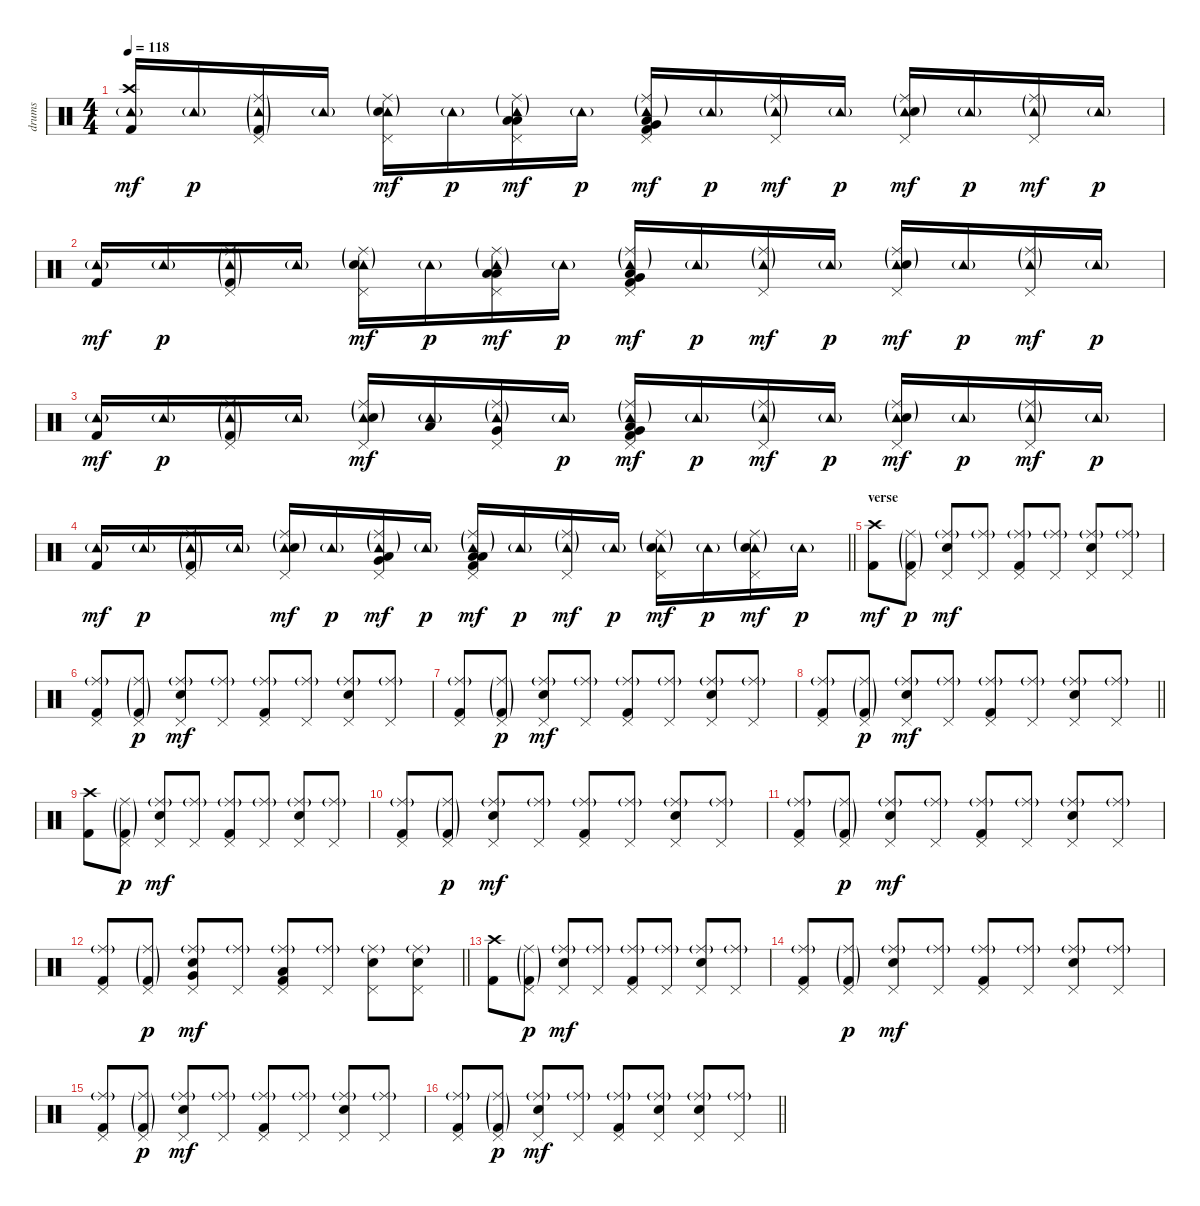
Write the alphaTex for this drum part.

\track ("drums" "drums") {instrument percussion}
\staff {score}
\articulation defaults
\ts (4 4)
\tempo 118
\clef neutral
\ks c
("Tambourine (hit)"{g} "Crash high (hit)" "Kick (hit) 2").16{dy mf} "Tambourine (hit)"{g}.16{dy p} ("Tambourine (hit)"{g} "Ride (middle)"{g} "Pedal Hi-Hat (hit)" "Kick (hit) 2"{g}).16 "Tambourine (hit)"{g}.16 ("Tambourine (hit)"{g} "Ride (middle)"{g} "Snare (hit) 2" "Pedal Hi-Hat (hit)").16{dy mf} "Tambourine (hit)"{g}.16{dy p} ("Tambourine (hit)"{g} "Ride (middle)"{g} "Low Floor Tom (hit)" "Low Floor Tom (hit)" "Pedal Hi-Hat (hit)").16{dy mf} "Tambourine (hit)"{g}.16{dy p} ("Tambourine (hit)"{g} "Ride (middle)"{g} "Kick (hit) 2" "Very Low Tom (hit)" "Pedal Hi-Hat (hit)" "Low Floor Tom (hit)").16{dy mf} "Tambourine (hit)"{g}.16{dy p} ("Tambourine (hit)"{g} "Ride (middle)"{g} "Pedal Hi-Hat (hit)").16{dy mf} "Tambourine (hit)"{g}.16{dy p} ("Tambourine (hit)"{g} "Ride (middle)"{g} "Snare (hit) 2" "Pedal Hi-Hat (hit)").16{dy mf} "Tambourine (hit)"{g}.16{dy p} ("Tambourine (hit)"{g} "Ride (middle)"{g} "Pedal Hi-Hat (hit)").16{dy mf} "Tambourine (hit)"{g}.16{dy p} |
("Tambourine (hit)"{g} "Kick (hit) 2").16{dy mf} "Tambourine (hit)"{g}.16{dy p} ("Tambourine (hit)"{g} "Ride (middle)"{g} "Pedal Hi-Hat (hit)" "Kick (hit) 2"{g}).16 "Tambourine (hit)"{g}.16 ("Tambourine (hit)"{g} "Ride (middle)"{g} "Snare (hit) 2" "Pedal Hi-Hat (hit)").16{dy mf} "Tambourine (hit)"{g}.16{dy p} ("Tambourine (hit)"{g} "Ride (middle)"{g} "Low Floor Tom (hit)" "Low Floor Tom (hit)" "Pedal Hi-Hat (hit)").16{dy mf} "Tambourine (hit)"{g}.16{dy p} ("Tambourine (hit)"{g} "Ride (middle)"{g} "Kick (hit) 2" "Low Tom (hit)" "Pedal Hi-Hat (hit)" "Very Low Tom (hit)").16{dy mf} "Tambourine (hit)"{g}.16{dy p} ("Tambourine (hit)"{g} "Ride (middle)"{g} "Pedal Hi-Hat (hit)").16{dy mf} "Tambourine (hit)"{g}.16{dy p} ("Tambourine (hit)"{g} "Ride (middle)"{g} "Snare (hit) 2" "Pedal Hi-Hat (hit)").16{dy mf} "Tambourine (hit)"{g}.16{dy p} ("Tambourine (hit)"{g} "Ride (middle)"{g} "Pedal Hi-Hat (hit)").16{dy mf} "Tambourine (hit)"{g}.16{dy p} |
("Tambourine (hit)"{g} "Kick (hit) 2").16{dy mf} "Tambourine (hit)"{g}.16{dy p} ("Tambourine (hit)"{g} "Ride (middle)"{g} "Pedal Hi-Hat (hit)" "Kick (hit) 2"{g}).16 "Tambourine (hit)"{g}.16 ("Tambourine (hit)"{g} "Ride (middle)"{g} "Snare (hit) 2" "Pedal Hi-Hat (hit)").16{dy mf} ("Tambourine (hit)"{g} "Low Tom (hit)").16 ("Tambourine (hit)"{g} "Ride (middle)"{g} "Very Low Tom (hit)" "Pedal Hi-Hat (hit)").16 "Tambourine (hit)"{g}.16{dy p} ("Tambourine (hit)"{g} "Ride (middle)"{g} "Kick (hit) 2" "Very Low Tom (hit)" "Pedal Hi-Hat (hit)" "Low Floor Tom (hit)").16{dy mf} "Tambourine (hit)"{g}.16{dy p} ("Tambourine (hit)"{g} "Ride (middle)"{g} "Pedal Hi-Hat (hit)").16{dy mf} "Tambourine (hit)"{g}.16{dy p} ("Tambourine (hit)"{g} "Ride (middle)"{g} "Snare (hit) 2" "Pedal Hi-Hat (hit)").16{dy mf} "Tambourine (hit)"{g}.16{dy p} ("Tambourine (hit)"{g} "Ride (middle)"{g} "Pedal Hi-Hat (hit)").16{dy mf} "Tambourine (hit)"{g}.16{dy p} |
\barLineRight lightlight
("Tambourine (hit)"{g} "Kick (hit) 2").16{dy mf} "Tambourine (hit)"{g}.16{dy p} ("Tambourine (hit)"{g} "Ride (middle)"{g} "Pedal Hi-Hat (hit)" "Kick (hit) 2"{g}).16 "Tambourine (hit)"{g}.16 ("Tambourine (hit)"{g} "Ride (middle)"{g} "Snare (hit) 2" "Pedal Hi-Hat (hit)").16{dy mf} "Tambourine (hit)"{g}.16{dy p} ("Tambourine (hit)"{g} "Ride (middle)"{g} "Very Low Tom (hit)" "Low Floor Tom (hit)" "Pedal Hi-Hat (hit)").16{dy mf} "Tambourine (hit)"{g}.16{dy p} ("Tambourine (hit)"{g} "Ride (middle)"{g} "Kick (hit) 2" "Low Floor Tom (hit)" "Pedal Hi-Hat (hit)" "Low Tom (hit)").16{dy mf} "Tambourine (hit)"{g}.16{dy p} ("Tambourine (hit)"{g} "Ride (middle)"{g} "Pedal Hi-Hat (hit)").16{dy mf} "Tambourine (hit)"{g}.16{dy p} ("Tambourine (hit)"{g} "Ride (middle)"{g} "Snare (hit) 2" "Pedal Hi-Hat (hit)").16{dy mf} "Tambourine (hit)"{g}.16{dy p} ("Tambourine (hit)"{g} "Ride (middle)"{g} "Snare (hit) 2" "Pedal Hi-Hat (hit)").16{dy mf} "Tambourine (hit)"{g}.16{dy p} |
\section ("" "verse ")
("Crash high (hit)" "Kick (hit) 2").8{dy mf} ("Ride (middle)"{g} "Pedal Hi-Hat (hit)" "Kick (hit) 2"{g}).8{dy p} ("Ride (middle)"{g} "Snare (hit) 2" "Pedal Hi-Hat (hit)").8{dy mf} ("Ride (middle)"{g} "Pedal Hi-Hat (hit)").8 ("Ride (middle)"{g} "Kick (hit) 2" "Pedal Hi-Hat (hit)").8 ("Ride (middle)"{g} "Pedal Hi-Hat (hit)").8 ("Ride (middle)"{g} "Snare (hit) 2" "Pedal Hi-Hat (hit)").8 ("Ride (middle)"{g} "Pedal Hi-Hat (hit)").8 |
("Ride (middle)"{g} "Kick (hit) 2" "Pedal Hi-Hat (hit)").8 ("Ride (middle)"{g} "Pedal Hi-Hat (hit)" "Kick (hit) 2"{g}).8{dy p} ("Ride (middle)"{g} "Snare (hit) 2" "Pedal Hi-Hat (hit)").8{dy mf} ("Ride (middle)"{g} "Pedal Hi-Hat (hit)").8 ("Ride (middle)"{g} "Kick (hit) 2" "Pedal Hi-Hat (hit)").8 ("Ride (middle)"{g} "Pedal Hi-Hat (hit)").8 ("Ride (middle)"{g} "Snare (hit) 2" "Pedal Hi-Hat (hit)").8 ("Ride (middle)"{g} "Pedal Hi-Hat (hit)").8 |
("Ride (middle)"{g} "Kick (hit) 2" "Pedal Hi-Hat (hit)").8 ("Ride (middle)"{g} "Pedal Hi-Hat (hit)" "Kick (hit) 2"{g}).8{dy p} ("Ride (middle)"{g} "Snare (hit) 2" "Pedal Hi-Hat (hit)").8{dy mf} ("Ride (middle)"{g} "Pedal Hi-Hat (hit)").8 ("Ride (middle)"{g} "Kick (hit) 2" "Pedal Hi-Hat (hit)").8 ("Ride (middle)"{g} "Pedal Hi-Hat (hit)").8 ("Ride (middle)"{g} "Snare (hit) 2" "Pedal Hi-Hat (hit)").8 ("Ride (middle)"{g} "Pedal Hi-Hat (hit)").8 |
\barLineRight lightlight
("Ride (middle)"{g} "Kick (hit) 2" "Pedal Hi-Hat (hit)").8 ("Ride (middle)"{g} "Pedal Hi-Hat (hit)" "Kick (hit) 2"{g}).8{dy p} ("Ride (middle)"{g} "Snare (hit) 2" "Pedal Hi-Hat (hit)").8{dy mf} ("Ride (middle)"{g} "Pedal Hi-Hat (hit)").8 ("Ride (middle)"{g} "Kick (hit) 2" "Pedal Hi-Hat (hit)").8 ("Ride (middle)"{g} "Pedal Hi-Hat (hit)").8 ("Ride (middle)"{g} "Snare (hit) 2" "Pedal Hi-Hat (hit)").8 ("Ride (middle)"{g} "Pedal Hi-Hat (hit)").8 |
("Crash high (hit)" "Kick (hit) 2").8 ("Ride (middle)"{g} "Pedal Hi-Hat (hit)" "Kick (hit) 2"{g}).8{dy p} ("Ride (middle)"{g} "Snare (hit) 2" "Pedal Hi-Hat (hit)").8{dy mf} ("Ride (middle)"{g} "Pedal Hi-Hat (hit)").8 ("Ride (middle)"{g} "Kick (hit) 2" "Pedal Hi-Hat (hit)").8 ("Ride (middle)"{g} "Pedal Hi-Hat (hit)").8 ("Ride (middle)"{g} "Snare (hit) 2" "Pedal Hi-Hat (hit)").8 ("Ride (middle)"{g} "Pedal Hi-Hat (hit)").8 |
("Ride (middle)"{g} "Kick (hit) 2" "Pedal Hi-Hat (hit)").8 ("Ride (middle)"{g} "Pedal Hi-Hat (hit)" "Kick (hit) 2"{g}).8{dy p} ("Ride (middle)"{g} "Snare (hit) 2" "Pedal Hi-Hat (hit)").8{dy mf} ("Ride (middle)"{g} "Pedal Hi-Hat (hit)").8 ("Ride (middle)"{g} "Kick (hit) 2" "Pedal Hi-Hat (hit)").8 ("Ride (middle)"{g} "Pedal Hi-Hat (hit)").8 ("Ride (middle)"{g} "Snare (hit) 2" "Pedal Hi-Hat (hit)").8 ("Ride (middle)"{g} "Pedal Hi-Hat (hit)").8 |
("Ride (middle)"{g} "Kick (hit) 2" "Pedal Hi-Hat (hit)").8 ("Ride (middle)"{g} "Pedal Hi-Hat (hit)" "Kick (hit) 2"{g}).8{dy p} ("Ride (middle)"{g} "Snare (hit) 2" "Pedal Hi-Hat (hit)").8{dy mf} ("Ride (middle)"{g} "Pedal Hi-Hat (hit)").8 ("Ride (middle)"{g} "Kick (hit) 2" "Pedal Hi-Hat (hit)").8 ("Ride (middle)"{g} "Pedal Hi-Hat (hit)").8 ("Ride (middle)"{g} "Snare (hit) 2" "Pedal Hi-Hat (hit)").8 ("Ride (middle)"{g} "Pedal Hi-Hat (hit)").8 |
\barLineRight lightlight
("Ride (middle)"{g} "Kick (hit) 2" "Pedal Hi-Hat (hit)").8 ("Ride (middle)"{g} "Pedal Hi-Hat (hit)" "Kick (hit) 2"{g}).8{dy p} ("Ride (middle)"{g} "Snare (hit) 2" "Very Low Tom (hit)" "Pedal Hi-Hat (hit)").8{dy mf} ("Ride (middle)"{g} "Pedal Hi-Hat (hit)").8 ("Ride (middle)"{g} "Kick (hit) 2" "Low Floor Tom (hit)" "Pedal Hi-Hat (hit)").8 ("Ride (middle)"{g} "Pedal Hi-Hat (hit)").8 ("Ride (middle)"{g} "Snare (hit) 2" "Pedal Hi-Hat (hit)").8 ("Ride (middle)"{g} "Snare (hit) 2" "Pedal Hi-Hat (hit)").8 |
("Crash high (hit)" "Kick (hit) 2").8 ("Ride (middle)"{g} "Pedal Hi-Hat (hit)" "Kick (hit) 2"{g}).8{dy p} ("Ride (middle)"{g} "Snare (hit) 2" "Pedal Hi-Hat (hit)").8{dy mf} ("Ride (middle)"{g} "Pedal Hi-Hat (hit)").8 ("Ride (middle)"{g} "Kick (hit) 2" "Pedal Hi-Hat (hit)").8 ("Ride (middle)"{g} "Pedal Hi-Hat (hit)").8 ("Ride (middle)"{g} "Snare (hit) 2" "Pedal Hi-Hat (hit)").8 ("Ride (middle)"{g} "Pedal Hi-Hat (hit)").8 |
("Ride (middle)"{g} "Kick (hit) 2" "Pedal Hi-Hat (hit)").8 ("Ride (middle)"{g} "Pedal Hi-Hat (hit)" "Kick (hit) 2"{g}).8{dy p} ("Ride (middle)"{g} "Snare (hit) 2" "Pedal Hi-Hat (hit)").8{dy mf} ("Ride (middle)"{g} "Pedal Hi-Hat (hit)").8 ("Ride (middle)"{g} "Kick (hit) 2" "Pedal Hi-Hat (hit)").8 ("Ride (middle)"{g} "Pedal Hi-Hat (hit)").8 ("Ride (middle)"{g} "Snare (hit) 2" "Pedal Hi-Hat (hit)").8 ("Ride (middle)"{g} "Pedal Hi-Hat (hit)").8 |
("Ride (middle)"{g} "Kick (hit) 2" "Pedal Hi-Hat (hit)").8 ("Ride (middle)"{g} "Pedal Hi-Hat (hit)" "Kick (hit) 2"{g}).8{dy p} ("Ride (middle)"{g} "Snare (hit) 2" "Pedal Hi-Hat (hit)").8{dy mf} ("Ride (middle)"{g} "Pedal Hi-Hat (hit)").8 ("Ride (middle)"{g} "Kick (hit) 2" "Pedal Hi-Hat (hit)").8 ("Ride (middle)"{g} "Pedal Hi-Hat (hit)").8 ("Ride (middle)"{g} "Snare (hit) 2" "Pedal Hi-Hat (hit)").8 ("Ride (middle)"{g} "Pedal Hi-Hat (hit)").8 |
\barLineRight lightlight
("Ride (middle)"{g} "Kick (hit) 2" "Pedal Hi-Hat (hit)").8 ("Ride (middle)"{g} "Pedal Hi-Hat (hit)" "Kick (hit) 2"{g}).8{dy p} ("Ride (middle)"{g} "Snare (hit) 2" "Pedal Hi-Hat (hit)").8{dy mf} ("Ride (middle)"{g} "Pedal Hi-Hat (hit)").8 ("Ride (middle)"{g} "Kick (hit) 2" "Pedal Hi-Hat (hit)").8 ("Ride (middle)"{g} "Snare (hit) 2" "Pedal Hi-Hat (hit)").8 ("Ride (middle)"{g} "Snare (hit) 2" "Pedal Hi-Hat (hit)").8 ("Ride (middle)"{g} "Pedal Hi-Hat (hit)").8
